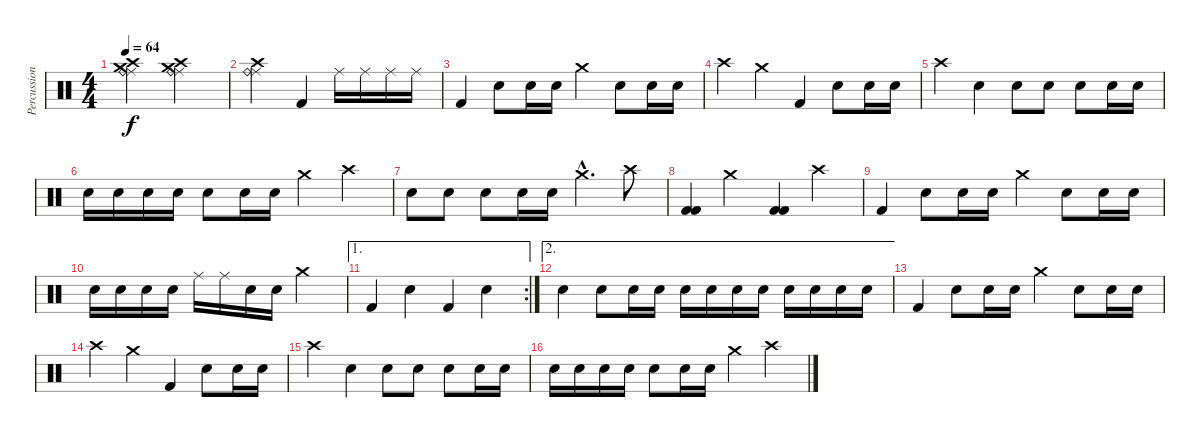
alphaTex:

\track ("Percussion" "Percussion") {instrument percussion}
\staff {score}
\articulation defaults
\ts (4 4)
\tempo 64
\clef neutral
\ks c
("Ride (middle)" "Ride (bell)" "Crash medium (hit)" "Crash high (hit)").2{dy f} ("Ride (middle)" "Ride (bell)" "Crash medium (hit)" "Crash high (hit)").2 |
("Ride (middle)" "Ride (bell)" "Crash high (hit)").2 "Kick (hit) 2".4 "Ride (middle)".16 "Ride (middle)".16 "Ride (middle)".16 "Ride (middle)".16 |
"Kick (hit) 2".4 "Electric Snare (hit)".8 "Electric Snare (hit)".16 "Electric Snare (hit)".16 "Crash medium (hit)".4 "Electric Snare (hit)".8 "Electric Snare (hit)".16 "Electric Snare (hit)".16 |
"Crash high (hit)".4 "Crash medium (hit)".4 "Kick (hit) 2".4 "Electric Snare (hit)".8 "Electric Snare (hit)".16 "Electric Snare (hit)".16 |
"Crash high (hit)".4 "Electric Snare (hit)".4 "Electric Snare (hit)".8 "Electric Snare (hit)".8 "Electric Snare (hit)".8 "Electric Snare (hit)".16 "Electric Snare (hit)".16 |
"Electric Snare (hit)".16 "Electric Snare (hit)".16 "Electric Snare (hit)".16 "Electric Snare (hit)".16 "Electric Snare (hit)".8 "Electric Snare (hit)".16 "Electric Snare (hit)".16 "Crash medium (hit)".4 "Crash high (hit)".4 |
"Electric Snare (hit)".8 "Electric Snare (hit)".8 "Electric Snare (hit)".8 "Electric Snare (hit)".16 "Electric Snare (hit)".16 "Crash medium (hit)"{hac}.4{d} "Crash high (hit)".8 |
("Kick (hit) 2" "Kick (hit) 2").4 "Crash medium (hit)".4 ("Kick (hit) 2" "Kick (hit) 2").4 "Crash high (hit)".4 |
"Kick (hit) 2".4 "Electric Snare (hit)".8 "Electric Snare (hit)".16 "Electric Snare (hit)".16 "Crash medium (hit)".4 "Electric Snare (hit)".8 "Electric Snare (hit)".16 "Electric Snare (hit)".16 |
"Electric Snare (hit)".16 "Electric Snare (hit)".16 "Electric Snare (hit)".16 "Electric Snare (hit)".16 "Ride (middle)".16 "Ride (middle)".16 "Electric Snare (hit)".16 "Electric Snare (hit)".16 "Crash medium (hit)".2 |
\ae 1
\rc 2 "Kick (hit) 2".4 "Electric Snare (hit)".4 "Kick (hit) 2".4 "Electric Snare (hit)".4
|
\ae 2 "Electric Snare (hit)".4 "Electric Snare (hit)".8 "Electric Snare (hit)".16 "Electric Snare (hit)".16 "Electric Snare (hit)".16 "Electric Snare (hit)".16 "Electric Snare (hit)".16 "Electric Snare (hit)".16 "Electric Snare (hit)".16 "Electric Snare (hit)".16 "Electric Snare (hit)".16 "Electric Snare (hit)".16
|
"Kick (hit) 2".4 "Electric Snare (hit)".8 "Electric Snare (hit)".16 "Electric Snare (hit)".16 "Crash medium (hit)".4 "Electric Snare (hit)".8 "Electric Snare (hit)".16 "Electric Snare (hit)".16 |
"Crash high (hit)".4 "Crash medium (hit)".4 "Kick (hit) 2".4 "Electric Snare (hit)".8 "Electric Snare (hit)".16 "Electric Snare (hit)".16 |
"Crash high (hit)".4 "Electric Snare (hit)".4 "Electric Snare (hit)".8 "Electric Snare (hit)".8 "Electric Snare (hit)".8 "Electric Snare (hit)".16 "Electric Snare (hit)".16 |
"Electric Snare (hit)".16 "Electric Snare (hit)".16 "Electric Snare (hit)".16 "Electric Snare (hit)".16 "Electric Snare (hit)".8 "Electric Snare (hit)".16 "Electric Snare (hit)".16 "Crash medium (hit)".4 "Crash high (hit)".4
